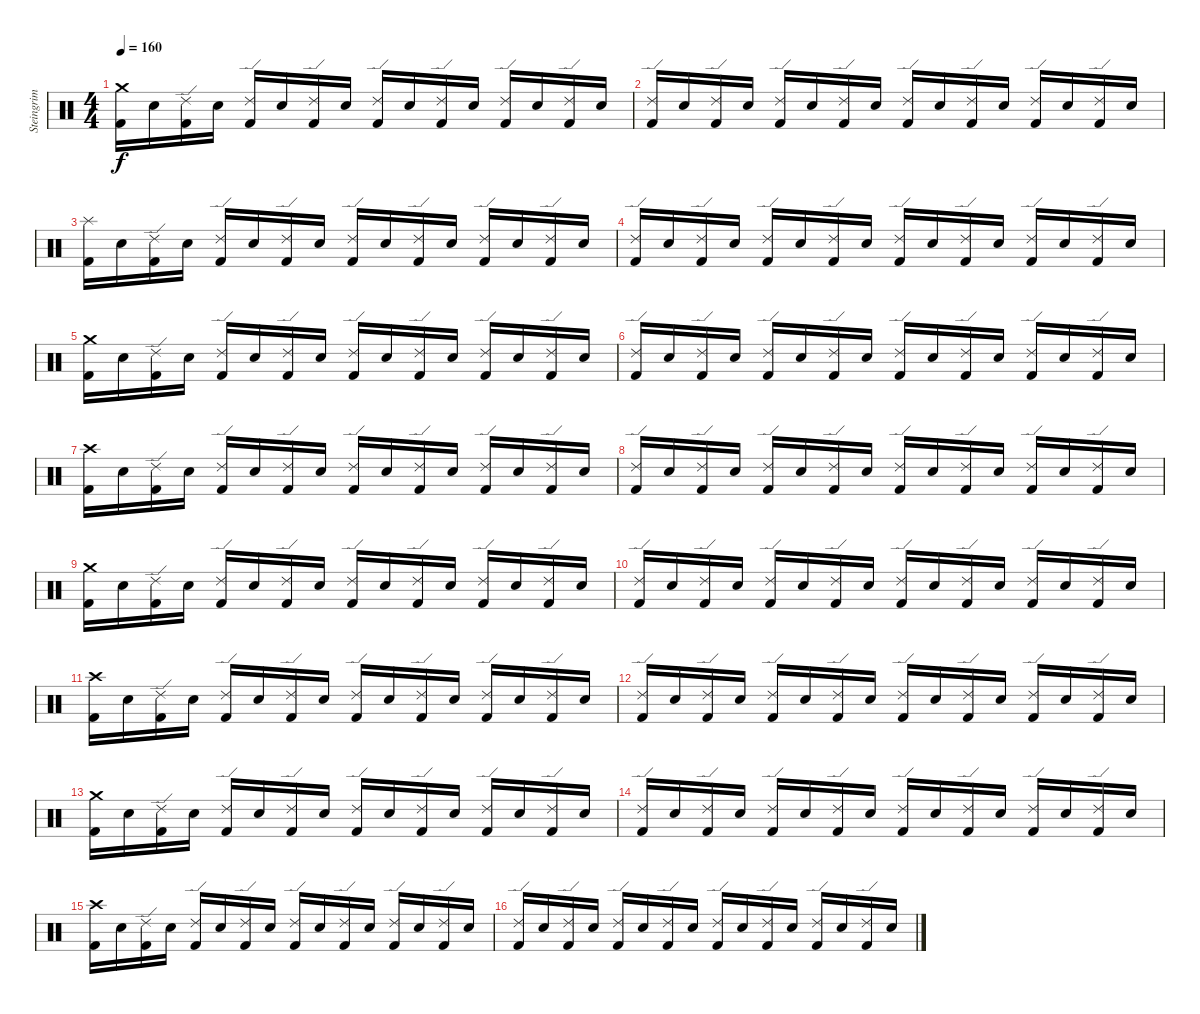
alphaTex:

\track ("Steingrim Trommur" "Steingrim ") {instrument percussion}
\staff {score}
\articulation defaults
\ts (4 4)
\tempo 160
\clef neutral
\ks c
("Crash medium (hit)" "Kick (hit) 2").16{dy f} "Electric Snare (hit)".16 ("Ride (edge) 2" "Kick (hit) 2").16 "Electric Snare (hit)".16 ("Ride (edge) 2" "Kick (hit) 2").16 "Electric Snare (hit)".16 ("Ride (edge) 2" "Kick (hit) 2").16 "Electric Snare (hit)".16 ("Ride (edge) 2" "Kick (hit) 2").16 "Electric Snare (hit)".16 ("Ride (edge) 2" "Kick (hit) 2").16 "Electric Snare (hit)".16 ("Ride (edge) 2" "Kick (hit) 2").16 "Electric Snare (hit)".16 ("Ride (edge) 2" "Kick (hit) 2").16 "Electric Snare (hit)".16 |
("Ride (edge) 2" "Kick (hit) 2").16 "Electric Snare (hit)".16 ("Ride (edge) 2" "Kick (hit) 2").16 "Electric Snare (hit)".16 ("Ride (edge) 2" "Kick (hit) 2").16 "Electric Snare (hit)".16 ("Ride (edge) 2" "Kick (hit) 2").16 "Electric Snare (hit)".16 ("Ride (edge) 2" "Kick (hit) 2").16 "Electric Snare (hit)".16 ("Ride (edge) 2" "Kick (hit) 2").16 "Electric Snare (hit)".16 ("Ride (edge) 2" "Kick (hit) 2").16 "Electric Snare (hit)".16 ("Ride (edge) 2" "Kick (hit) 2").16 "Electric Snare (hit)".16 |
("Splash (hit)" "Kick (hit) 2").16 "Electric Snare (hit)".16 ("Ride (edge) 2" "Kick (hit) 2").16 "Electric Snare (hit)".16 ("Ride (edge) 2" "Kick (hit) 2").16 "Electric Snare (hit)".16 ("Ride (edge) 2" "Kick (hit) 2").16 "Electric Snare (hit)".16 ("Ride (edge) 2" "Kick (hit) 2").16 "Electric Snare (hit)".16 ("Ride (edge) 2" "Kick (hit) 2").16 "Electric Snare (hit)".16 ("Ride (edge) 2" "Kick (hit) 2").16 "Electric Snare (hit)".16 ("Ride (edge) 2" "Kick (hit) 2").16 "Electric Snare (hit)".16 |
("Ride (edge) 2" "Kick (hit) 2").16 "Electric Snare (hit)".16 ("Ride (edge) 2" "Kick (hit) 2").16 "Electric Snare (hit)".16 ("Ride (edge) 2" "Kick (hit) 2").16 "Electric Snare (hit)".16 ("Ride (edge) 2" "Kick (hit) 2").16 "Electric Snare (hit)".16 ("Ride (edge) 2" "Kick (hit) 2").16 "Electric Snare (hit)".16 ("Ride (edge) 2" "Kick (hit) 2").16 "Electric Snare (hit)".16 ("Ride (edge) 2" "Kick (hit) 2").16 "Electric Snare (hit)".16 ("Ride (edge) 2" "Kick (hit) 2").16 "Electric Snare (hit)".16 |
("Crash medium (hit)" "Kick (hit) 2").16 "Electric Snare (hit)".16 ("Ride (edge) 2" "Kick (hit) 2").16 "Electric Snare (hit)".16 ("Ride (edge) 2" "Kick (hit) 2").16 "Electric Snare (hit)".16 ("Ride (edge) 2" "Kick (hit) 2").16 "Electric Snare (hit)".16 ("Ride (edge) 2" "Kick (hit) 2").16 "Electric Snare (hit)".16 ("Ride (edge) 2" "Kick (hit) 2").16 "Electric Snare (hit)".16 ("Ride (edge) 2" "Kick (hit) 2").16 "Electric Snare (hit)".16 ("Ride (edge) 2" "Kick (hit) 2").16 "Electric Snare (hit)".16 |
("Ride (edge) 2" "Kick (hit) 2").16 "Electric Snare (hit)".16 ("Ride (edge) 2" "Kick (hit) 2").16 "Electric Snare (hit)".16 ("Ride (edge) 2" "Kick (hit) 2").16 "Electric Snare (hit)".16 ("Ride (edge) 2" "Kick (hit) 2").16 "Electric Snare (hit)".16 ("Ride (edge) 2" "Kick (hit) 2").16 "Electric Snare (hit)".16 ("Ride (edge) 2" "Kick (hit) 2").16 "Electric Snare (hit)".16 ("Ride (edge) 2" "Kick (hit) 2").16 "Electric Snare (hit)".16 ("Ride (edge) 2" "Kick (hit) 2").16 "Electric Snare (hit)".16 |
("Crash high (hit)" "Kick (hit) 2").16 "Electric Snare (hit)".16 ("Ride (edge) 2" "Kick (hit) 2").16 "Electric Snare (hit)".16 ("Ride (edge) 2" "Kick (hit) 2").16 "Electric Snare (hit)".16 ("Ride (edge) 2" "Kick (hit) 2").16 "Electric Snare (hit)".16 ("Ride (edge) 2" "Kick (hit) 2").16 "Electric Snare (hit)".16 ("Ride (edge) 2" "Kick (hit) 2").16 "Electric Snare (hit)".16 ("Ride (edge) 2" "Kick (hit) 2").16 "Electric Snare (hit)".16 ("Ride (edge) 2" "Kick (hit) 2").16 "Electric Snare (hit)".16 |
("Ride (edge) 2" "Kick (hit) 2").16 "Electric Snare (hit)".16 ("Ride (edge) 2" "Kick (hit) 2").16 "Electric Snare (hit)".16 ("Ride (edge) 2" "Kick (hit) 2").16 "Electric Snare (hit)".16 ("Ride (edge) 2" "Kick (hit) 2").16 "Electric Snare (hit)".16 ("Ride (edge) 2" "Kick (hit) 2").16 "Electric Snare (hit)".16 ("Ride (edge) 2" "Kick (hit) 2").16 "Electric Snare (hit)".16 ("Ride (edge) 2" "Kick (hit) 2").16 "Electric Snare (hit)".16 ("Ride (edge) 2" "Kick (hit) 2").16 "Electric Snare (hit)".16 |
("Crash medium (hit)" "Kick (hit) 2").16 "Electric Snare (hit)".16 ("Ride (edge) 2" "Kick (hit) 2").16 "Electric Snare (hit)".16 ("Ride (edge) 2" "Kick (hit) 2").16 "Electric Snare (hit)".16 ("Ride (edge) 2" "Kick (hit) 2").16 "Electric Snare (hit)".16 ("Ride (edge) 2" "Kick (hit) 2").16 "Electric Snare (hit)".16 ("Ride (edge) 2" "Kick (hit) 2").16 "Electric Snare (hit)".16 ("Ride (edge) 2" "Kick (hit) 2").16 "Electric Snare (hit)".16 ("Ride (edge) 2" "Kick (hit) 2").16 "Electric Snare (hit)".16 |
("Ride (edge) 2" "Kick (hit) 2").16 "Electric Snare (hit)".16 ("Ride (edge) 2" "Kick (hit) 2").16 "Electric Snare (hit)".16 ("Ride (edge) 2" "Kick (hit) 2").16 "Electric Snare (hit)".16 ("Ride (edge) 2" "Kick (hit) 2").16 "Electric Snare (hit)".16 ("Ride (edge) 2" "Kick (hit) 2").16 "Electric Snare (hit)".16 ("Ride (edge) 2" "Kick (hit) 2").16 "Electric Snare (hit)".16 ("Ride (edge) 2" "Kick (hit) 2").16 "Electric Snare (hit)".16 ("Ride (edge) 2" "Kick (hit) 2").16 "Electric Snare (hit)".16 |
("Crash high (hit)" "Kick (hit) 2").16 "Electric Snare (hit)".16 ("Ride (edge) 2" "Kick (hit) 2").16 "Electric Snare (hit)".16 ("Ride (edge) 2" "Kick (hit) 2").16 "Electric Snare (hit)".16 ("Ride (edge) 2" "Kick (hit) 2").16 "Electric Snare (hit)".16 ("Ride (edge) 2" "Kick (hit) 2").16 "Electric Snare (hit)".16 ("Ride (edge) 2" "Kick (hit) 2").16 "Electric Snare (hit)".16 ("Ride (edge) 2" "Kick (hit) 2").16 "Electric Snare (hit)".16 ("Ride (edge) 2" "Kick (hit) 2").16 "Electric Snare (hit)".16 |
("Ride (edge) 2" "Kick (hit) 2").16 "Electric Snare (hit)".16 ("Ride (edge) 2" "Kick (hit) 2").16 "Electric Snare (hit)".16 ("Ride (edge) 2" "Kick (hit) 2").16 "Electric Snare (hit)".16 ("Ride (edge) 2" "Kick (hit) 2").16 "Electric Snare (hit)".16 ("Ride (edge) 2" "Kick (hit) 2").16 "Electric Snare (hit)".16 ("Ride (edge) 2" "Kick (hit) 2").16 "Electric Snare (hit)".16 ("Ride (edge) 2" "Kick (hit) 2").16 "Electric Snare (hit)".16 ("Ride (edge) 2" "Kick (hit) 2").16 "Electric Snare (hit)".16 |
("Crash medium (hit)" "Kick (hit) 2").16 "Electric Snare (hit)".16 ("Ride (edge) 2" "Kick (hit) 2").16 "Electric Snare (hit)".16 ("Ride (edge) 2" "Kick (hit) 2").16 "Electric Snare (hit)".16 ("Ride (edge) 2" "Kick (hit) 2").16 "Electric Snare (hit)".16 ("Ride (edge) 2" "Kick (hit) 2").16 "Electric Snare (hit)".16 ("Ride (edge) 2" "Kick (hit) 2").16 "Electric Snare (hit)".16 ("Ride (edge) 2" "Kick (hit) 2").16 "Electric Snare (hit)".16 ("Ride (edge) 2" "Kick (hit) 2").16 "Electric Snare (hit)".16 |
("Ride (edge) 2" "Kick (hit) 2").16 "Electric Snare (hit)".16 ("Ride (edge) 2" "Kick (hit) 2").16 "Electric Snare (hit)".16 ("Ride (edge) 2" "Kick (hit) 2").16 "Electric Snare (hit)".16 ("Ride (edge) 2" "Kick (hit) 2").16 "Electric Snare (hit)".16 ("Ride (edge) 2" "Kick (hit) 2").16 "Electric Snare (hit)".16 ("Ride (edge) 2" "Kick (hit) 2").16 "Electric Snare (hit)".16 ("Ride (edge) 2" "Kick (hit) 2").16 "Electric Snare (hit)".16 ("Ride (edge) 2" "Kick (hit) 2").16 "Electric Snare (hit)".16 |
("Crash high (hit)" "Kick (hit) 2").16 "Electric Snare (hit)".16 ("Ride (edge) 2" "Kick (hit) 2").16 "Electric Snare (hit)".16 ("Ride (edge) 2" "Kick (hit) 2").16 "Electric Snare (hit)".16 ("Ride (edge) 2" "Kick (hit) 2").16 "Electric Snare (hit)".16 ("Ride (edge) 2" "Kick (hit) 2").16 "Electric Snare (hit)".16 ("Ride (edge) 2" "Kick (hit) 2").16 "Electric Snare (hit)".16 ("Ride (edge) 2" "Kick (hit) 2").16 "Electric Snare (hit)".16 ("Ride (edge) 2" "Kick (hit) 2").16 "Electric Snare (hit)".16 |
("Ride (edge) 2" "Kick (hit) 2").16 "Electric Snare (hit)".16 ("Ride (edge) 2" "Kick (hit) 2").16 "Electric Snare (hit)".16 ("Ride (edge) 2" "Kick (hit) 2").16 "Electric Snare (hit)".16 ("Ride (edge) 2" "Kick (hit) 2").16 "Electric Snare (hit)".16 ("Ride (edge) 2" "Kick (hit) 2").16 "Electric Snare (hit)".16 ("Ride (edge) 2" "Kick (hit) 2").16 "Electric Snare (hit)".16 ("Ride (edge) 2" "Kick (hit) 2").16 "Electric Snare (hit)".16 ("Ride (edge) 2" "Kick (hit) 2").16 "Electric Snare (hit)".16
